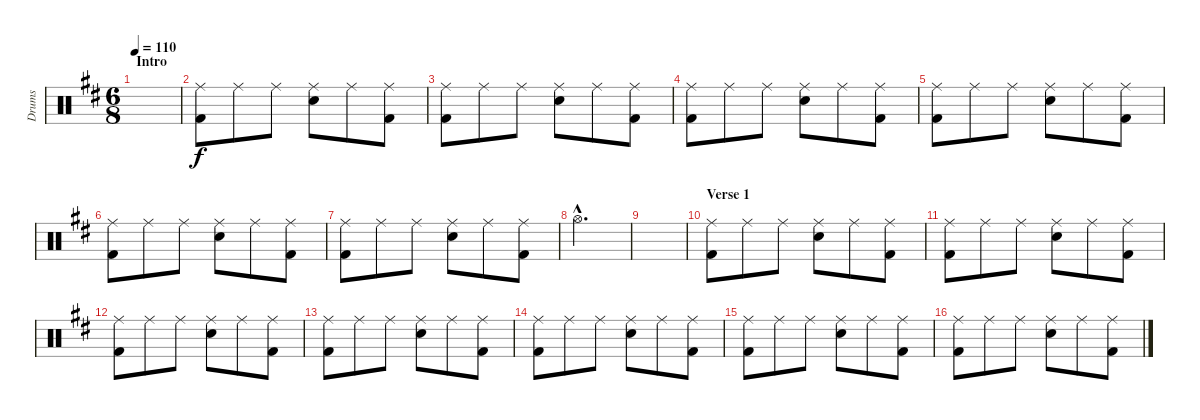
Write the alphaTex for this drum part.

\track ("Drums" "Drums") {instrument percussion}
\staff {score}
\articulation defaults
\ts (6 8)
\section ("" "Intro")
\tempo 110
\clef neutral
\ks d
|
("Ride (middle)" "Kick (hit) 2").8 "Ride (middle)".8 "Ride (middle)".8 ("Ride (middle)" "Electric Snare (hit)").8 "Ride (middle)".8 ("Ride (middle)" "Kick (hit) 2").8 |
("Ride (middle)" "Kick (hit) 2").8 "Ride (middle)".8 "Ride (middle)".8 ("Ride (middle)" "Electric Snare (hit)").8 "Ride (middle)".8 ("Ride (middle)" "Kick (hit) 2").8 |
("Ride (middle)" "Kick (hit) 2").8 "Ride (middle)".8 "Ride (middle)".8 ("Ride (middle)" "Electric Snare (hit)").8 "Ride (middle)".8 ("Ride (middle)" "Kick (hit) 2").8 |
("Ride (middle)" "Kick (hit) 2").8 "Ride (middle)".8 "Ride (middle)".8 ("Ride (middle)" "Electric Snare (hit)").8 "Ride (middle)".8 ("Ride (middle)" "Kick (hit) 2").8 |
("Ride (middle)" "Kick (hit) 2").8 "Ride (middle)".8 "Ride (middle)".8 ("Ride (middle)" "Electric Snare (hit)").8 "Ride (middle)".8 ("Ride (middle)" "Kick (hit) 2").8 |
("Ride (middle)" "Kick (hit) 2").8 "Ride (middle)".8 "Ride (middle)".8 ("Ride (middle)" "Electric Snare (hit)").8 "Ride (middle)".8 ("Ride (middle)" "Kick (hit) 2").8 |
"Hi-Hat (open)"{hac}.2{d} |
|
\section ("" "Verse 1")
("Ride (middle)" "Kick (hit) 2").8 "Ride (middle)".8 "Ride (middle)".8 ("Ride (middle)" "Electric Snare (hit)").8 "Ride (middle)".8 ("Ride (middle)" "Kick (hit) 2").8 |
("Ride (middle)" "Kick (hit) 2").8 "Ride (middle)".8 "Ride (middle)".8 ("Ride (middle)" "Electric Snare (hit)").8 "Ride (middle)".8 ("Ride (middle)" "Kick (hit) 2").8 |
("Ride (middle)" "Kick (hit) 2").8 "Ride (middle)".8 "Ride (middle)".8 ("Ride (middle)" "Electric Snare (hit)").8 "Ride (middle)".8 ("Ride (middle)" "Kick (hit) 2").8 |
("Ride (middle)" "Kick (hit) 2").8 "Ride (middle)".8 "Ride (middle)".8 ("Ride (middle)" "Electric Snare (hit)").8 "Ride (middle)".8 ("Ride (middle)" "Kick (hit) 2").8 |
("Ride (middle)" "Kick (hit) 2").8 "Ride (middle)".8 "Ride (middle)".8 ("Ride (middle)" "Electric Snare (hit)").8 "Ride (middle)".8 ("Ride (middle)" "Kick (hit) 2").8 |
("Ride (middle)" "Kick (hit) 2").8 "Ride (middle)".8 "Ride (middle)".8 ("Ride (middle)" "Electric Snare (hit)").8 "Ride (middle)".8 ("Ride (middle)" "Kick (hit) 2").8 |
("Ride (middle)" "Kick (hit) 2").8 "Ride (middle)".8 "Ride (middle)".8 ("Ride (middle)" "Electric Snare (hit)").8 "Ride (middle)".8 ("Ride (middle)" "Kick (hit) 2").8
